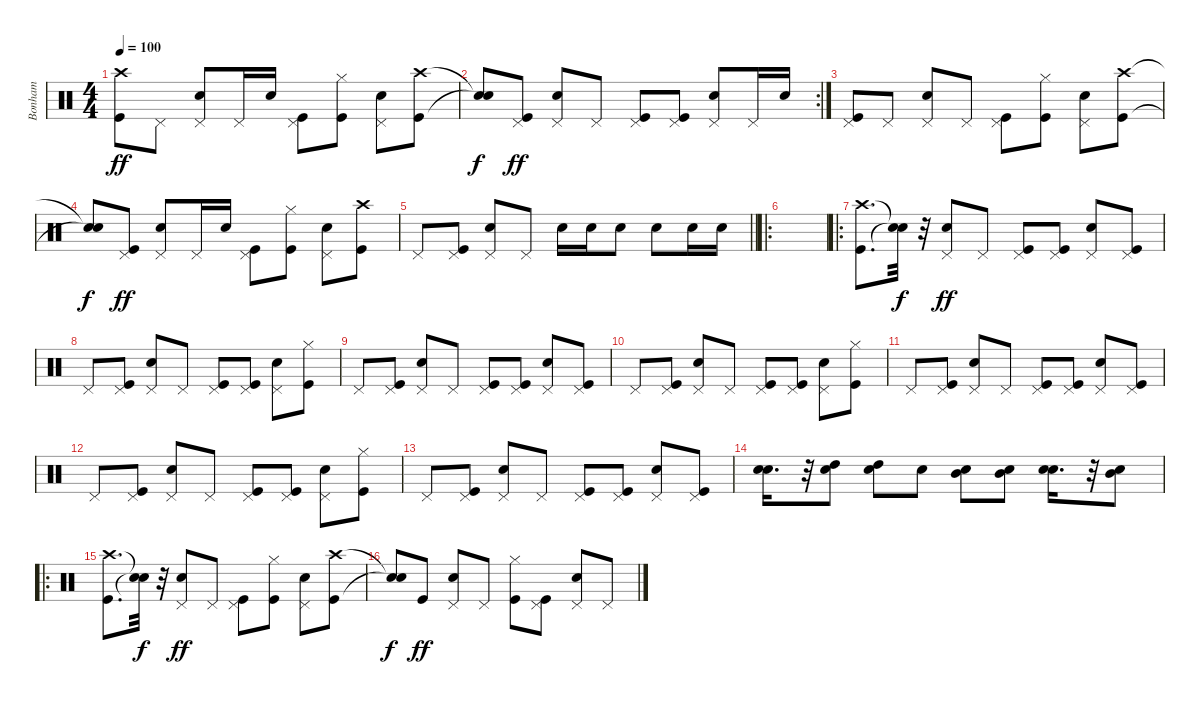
\track ("Bonham" "Bonham") {instrument percussion}
\staff {score}
\articulation defaults
\ts (4 4)
\tempo 100
\clef neutral
\ks c
("Kick (hit)" "Crash high (hit)").8{dy ff} "Pedal Hi-Hat (hit)".8 ("Snare (hit) 2" "Pedal Hi-Hat (hit)").8 "Pedal Hi-Hat (hit)".16 "Snare (hit) 2".16 ("Kick (hit)" "Pedal Hi-Hat (hit)").8 ("Kick (hit)" "Hi-Hat (closed)").8 ("Snare (hit) 2" "Pedal Hi-Hat (hit)").8 ("Kick (hit)" "Crash high (hit)").8 |
\rc 2
("Snare (hit)"{t} "Snare (hit)"{t}).8{dy f} ("Kick (hit)" "Pedal Hi-Hat (hit)").8{dy ff} ("Snare (hit) 2" "Pedal Hi-Hat (hit)").8 "Pedal Hi-Hat (hit)".8 ("Kick (hit)" "Pedal Hi-Hat (hit)").8 ("Kick (hit)" "Pedal Hi-Hat (hit)").8 ("Snare (hit) 2" "Pedal Hi-Hat (hit)").8 "Pedal Hi-Hat (hit)".16 "Snare (hit) 2".16 |
("Kick (hit)" "Pedal Hi-Hat (hit)").8 "Pedal Hi-Hat (hit)".8 ("Snare (hit) 2" "Pedal Hi-Hat (hit)").8 "Pedal Hi-Hat (hit)".8 ("Kick (hit)" "Pedal Hi-Hat (hit)").8 ("Kick (hit)" "Hi-Hat (closed)").8 ("Snare (hit) 2" "Pedal Hi-Hat (hit)").8 ("Kick (hit)" "Crash high (hit)").8 |
("Snare (hit)"{t} "Snare (hit)"{t}).8{dy f} ("Kick (hit)" "Pedal Hi-Hat (hit)").8{dy ff} ("Snare (hit) 2" "Pedal Hi-Hat (hit)").8 "Pedal Hi-Hat (hit)".16 "Snare (hit) 2".16 ("Kick (hit)" "Pedal Hi-Hat (hit)").8 ("Kick (hit)" "Hi-Hat (closed)").8 ("Snare (hit) 2" "Pedal Hi-Hat (hit)").8 ("Kick (hit)" "Crash high (hit)").8 |
\barLineRight lightlight "Pedal Hi-Hat (hit)".8
("Kick (hit)" "Pedal Hi-Hat (hit)").8 ("Snare (hit) 2" "Pedal Hi-Hat (hit)").8 "Pedal Hi-Hat (hit)".8 "Snare (hit) 2".16 "Snare (hit) 2".16 "Snare (hit) 2".8 "Snare (hit) 2".8 "Snare (hit) 2".16 "Snare (hit) 2".16 |
\ro
|
\ro
("Kick (hit)" "Crash high (hit)").8{d} ("Snare (hit)"{t} "Snare (hit)"{t}).32{dy f} r.32 ("Snare (hit) 2" "Pedal Hi-Hat (hit)").8{dy ff} "Pedal Hi-Hat (hit)".8 ("Kick (hit)" "Pedal Hi-Hat (hit)").8 ("Kick (hit)" "Pedal Hi-Hat (hit)").8 ("Snare (hit) 2" "Pedal Hi-Hat (hit)").8 ("Kick (hit)" "Pedal Hi-Hat (hit)").8 |
"Pedal Hi-Hat (hit)".8 ("Kick (hit)" "Pedal Hi-Hat (hit)").8 ("Snare (hit) 2" "Pedal Hi-Hat (hit)").8 "Pedal Hi-Hat (hit)".8 ("Kick (hit)" "Pedal Hi-Hat (hit)").8 ("Kick (hit)" "Pedal Hi-Hat (hit)").8 ("Snare (hit) 2" "Pedal Hi-Hat (hit)").8 ("Kick (hit)" "Hi-Hat (closed)").8 |
"Pedal Hi-Hat (hit)".8 ("Kick (hit)" "Pedal Hi-Hat (hit)").8 ("Snare (hit) 2" "Pedal Hi-Hat (hit)").8 "Pedal Hi-Hat (hit)".8 ("Kick (hit)" "Pedal Hi-Hat (hit)").8 ("Kick (hit)" "Pedal Hi-Hat (hit)").8 ("Snare (hit) 2" "Pedal Hi-Hat (hit)").8 ("Kick (hit)" "Pedal Hi-Hat (hit)").8 |
"Pedal Hi-Hat (hit)".8 ("Kick (hit)" "Pedal Hi-Hat (hit)").8 ("Snare (hit) 2" "Pedal Hi-Hat (hit)").8 "Pedal Hi-Hat (hit)".8 ("Kick (hit)" "Pedal Hi-Hat (hit)").8 ("Kick (hit)" "Pedal Hi-Hat (hit)").8 ("Snare (hit) 2" "Pedal Hi-Hat (hit)").8 ("Kick (hit)" "Hi-Hat (closed)").8 |
"Pedal Hi-Hat (hit)".8 ("Kick (hit)" "Pedal Hi-Hat (hit)").8 ("Snare (hit) 2" "Pedal Hi-Hat (hit)").8 "Pedal Hi-Hat (hit)".8 ("Kick (hit)" "Pedal Hi-Hat (hit)").8 ("Kick (hit)" "Pedal Hi-Hat (hit)").8 ("Snare (hit) 2" "Pedal Hi-Hat (hit)").8 ("Kick (hit)" "Pedal Hi-Hat (hit)").8 |
"Pedal Hi-Hat (hit)".8 ("Kick (hit)" "Pedal Hi-Hat (hit)").8 ("Snare (hit) 2" "Pedal Hi-Hat (hit)").8 "Pedal Hi-Hat (hit)".8 ("Kick (hit)" "Pedal Hi-Hat (hit)").8 ("Kick (hit)" "Pedal Hi-Hat (hit)").8 ("Snare (hit) 2" "Pedal Hi-Hat (hit)").8 ("Kick (hit)" "Hi-Hat (closed)").8 |
"Pedal Hi-Hat (hit)".8 ("Kick (hit)" "Pedal Hi-Hat (hit)").8 ("Snare (hit) 2" "Pedal Hi-Hat (hit)").8 "Pedal Hi-Hat (hit)".8 ("Kick (hit)" "Pedal Hi-Hat (hit)").8 ("Kick (hit)" "Pedal Hi-Hat (hit)").8 ("Snare (hit) 2" "Pedal Hi-Hat (hit)").8 ("Kick (hit)" "Pedal Hi-Hat (hit)").8 |
("Snare (hit) 2" "Snare (hit) 2").16{d} r.32 ("Snare (hit) 2" "High Tom (hit)").8 ("Snare (hit) 2" "High Tom (hit)").8 "Snare (hit) 2".8 ("Snare (hit) 2" "Mid Tom (hit)").8 ("Snare (hit) 2" "Mid Tom (hit)").8 ("Snare (hit) 2" "Snare (hit) 2").16{d} r.32 ("Snare (hit) 2" "Mid Tom (hit)").8 |
\ro
("Kick (hit)" "Crash high (hit)").8{d} ("Snare (hit)"{t} "Snare (hit)"{t}).32{dy f} r.32 ("Snare (hit) 2" "Pedal Hi-Hat (hit)").8{dy ff} "Pedal Hi-Hat (hit)".8 ("Kick (hit)" "Pedal Hi-Hat (hit)").8 ("Kick (hit)" "Hi-Hat (closed)").8 ("Snare (hit) 2" "Pedal Hi-Hat (hit)").8 ("Kick (hit)" "Crash high (hit)").8 |
("Snare (hit)"{t} "Snare (hit)"{t}).8{dy f} "Kick (hit)".8{dy ff} ("Snare (hit) 2" "Pedal Hi-Hat (hit)").8 "Pedal Hi-Hat (hit)".8 ("Kick (hit)" "Hi-Hat (closed)").8 ("Kick (hit)" "Pedal Hi-Hat (hit)").8 ("Snare (hit) 2" "Pedal Hi-Hat (hit)").8 "Pedal Hi-Hat (hit)".8
